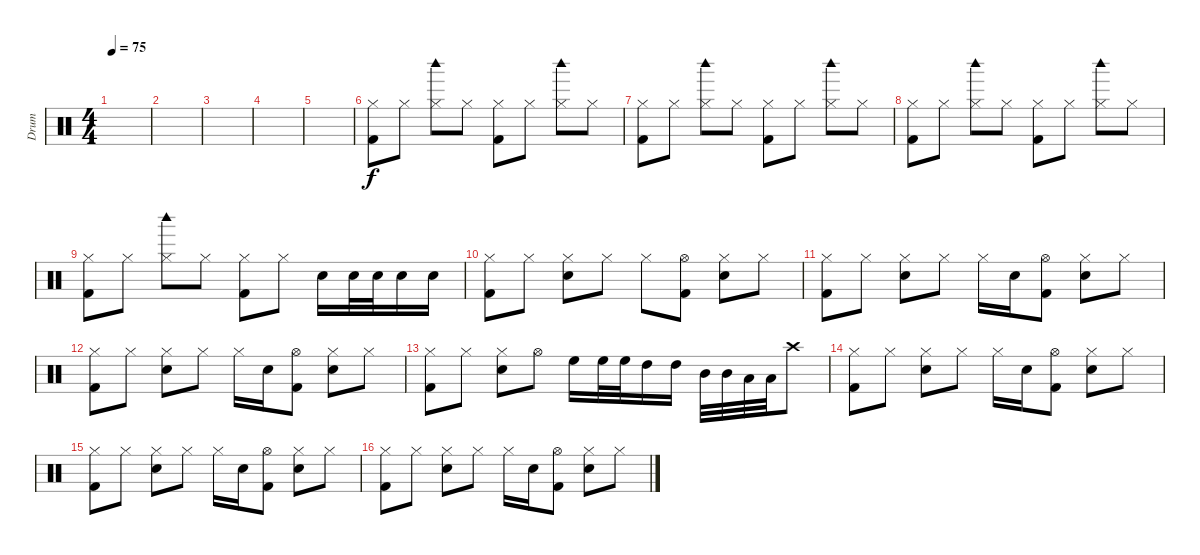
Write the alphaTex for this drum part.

\track ("Drum" "Drum") {instrument percussion}
\staff {score}
\articulation defaults
\ts (4 4)
\tempo 75
\clef neutral
\ks c
|
|
|
|
|
("Hi-Hat (closed)" "Kick (hit) 2").8 "Hi-Hat (closed)".8 ("Hi-Hat (closed)" "Woodblock high (hit)").8 "Hi-Hat (closed)".8 ("Hi-Hat (closed)" "Kick (hit) 2").8 "Hi-Hat (closed)".8 ("Hi-Hat (closed)" "Woodblock high (hit)").8 "Hi-Hat (closed)".8 |
("Hi-Hat (closed)" "Kick (hit) 2").8 "Hi-Hat (closed)".8 ("Hi-Hat (closed)" "Woodblock high (hit)").8 "Hi-Hat (closed)".8 ("Hi-Hat (closed)" "Kick (hit) 2").8 "Hi-Hat (closed)".8 ("Hi-Hat (closed)" "Woodblock high (hit)").8 "Hi-Hat (closed)".8 |
("Hi-Hat (closed)" "Kick (hit) 2").8 "Hi-Hat (closed)".8 ("Hi-Hat (closed)" "Woodblock high (hit)").8 "Hi-Hat (closed)".8 ("Hi-Hat (closed)" "Kick (hit) 2").8 "Hi-Hat (closed)".8 ("Hi-Hat (closed)" "Woodblock high (hit)").8 "Hi-Hat (closed)".8 |
("Hi-Hat (closed)" "Kick (hit) 2").8 "Hi-Hat (closed)".8 ("Hi-Hat (closed)" "Woodblock high (hit)").8 "Hi-Hat (closed)".8 ("Hi-Hat (closed)" "Kick (hit) 2").8 "Hi-Hat (closed)".8 "Electric Snare (hit)".16 "Snare (hit) 2".32 "Snare (hit) 2".32 "Electric Snare (hit)".16 "Electric Snare (hit)".16 |
("Hi-Hat (closed)" "Kick (hit) 2").8 "Hi-Hat (closed)".8 ("Hi-Hat (closed)" "Electric Snare (hit)").8 "Hi-Hat (closed)".8 "Hi-Hat (closed)".8 ("Hi-Hat (open)" "Kick (hit) 2").8 ("Hi-Hat (closed)" "Electric Snare (hit)").8 "Hi-Hat (closed)".8 |
("Kick (hit) 2" "Hi-Hat (closed)").8 "Hi-Hat (closed)".8 ("Electric Snare (hit)" "Hi-Hat (closed)").8 "Hi-Hat (closed)".8 "Hi-Hat (closed)".16 "Electric Snare (hit)".16 ("Kick (hit) 2" "Hi-Hat (open)").8 ("Electric Snare (hit)" "Hi-Hat (closed)").8 "Hi-Hat (closed)".8 |
("Kick (hit) 2" "Hi-Hat (closed)").8 "Hi-Hat (closed)".8 ("Electric Snare (hit)" "Hi-Hat (closed)").8 "Hi-Hat (closed)".8 "Hi-Hat (closed)".16 "Electric Snare (hit)".16 ("Kick (hit) 2" "Hi-Hat (open)").8 ("Electric Snare (hit)" "Hi-Hat (closed)").8 "Hi-Hat (closed)".8 |
("Kick (hit) 2" "Hi-Hat (closed)").8 "Hi-Hat (closed)".8 ("Electric Snare (hit)" "Hi-Hat (closed)").8 "Hi-Hat (open)".8 "High Floor Tom (hit)".16 "High Floor Tom (hit)".32 "High Floor Tom (hit)".32 "High Tom (hit)".16 "High Tom (hit)".16 "Mid Tom (hit)".32 "Mid Tom (hit)".32 "Low Tom (hit)".32 "Low Tom (hit)".32 "Crash high (hit)".8 |
("Kick (hit) 2" "Hi-Hat (closed)").8 "Hi-Hat (closed)".8 ("Electric Snare (hit)" "Hi-Hat (closed)").8 "Hi-Hat (closed)".8 "Hi-Hat (closed)".16 "Electric Snare (hit)".16 ("Kick (hit) 2" "Hi-Hat (open)").8 ("Electric Snare (hit)" "Hi-Hat (closed)").8 "Hi-Hat (closed)".8 |
("Kick (hit) 2" "Hi-Hat (closed)").8 "Hi-Hat (closed)".8 ("Electric Snare (hit)" "Hi-Hat (closed)").8 "Hi-Hat (closed)".8 "Hi-Hat (closed)".16 "Electric Snare (hit)".16 ("Kick (hit) 2" "Hi-Hat (open)").8 ("Electric Snare (hit)" "Hi-Hat (closed)").8 "Hi-Hat (closed)".8 |
("Kick (hit) 2" "Hi-Hat (closed)").8 "Hi-Hat (closed)".8 ("Electric Snare (hit)" "Hi-Hat (closed)").8 "Hi-Hat (closed)".8 "Hi-Hat (closed)".16 "Electric Snare (hit)".16 ("Kick (hit) 2" "Hi-Hat (open)").8 ("Electric Snare (hit)" "Hi-Hat (closed)").8 "Hi-Hat (closed)".8
